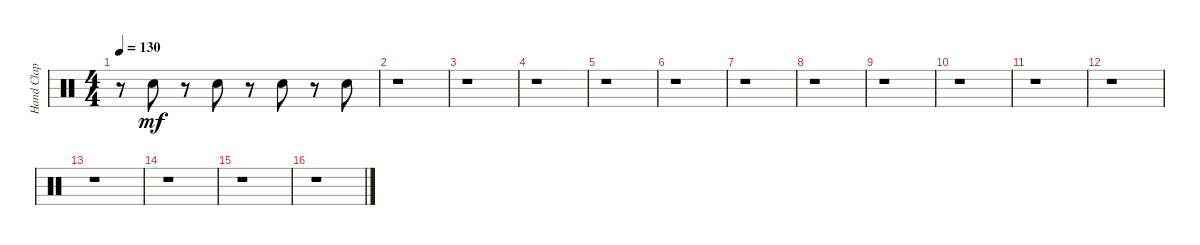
\track ("Hand Clap" "Hand Clap") {instrument percussion}
\staff {score}
\articulation defaults
\ts (4 4)
\tempo 130
\clef neutral
\ks c
r.8{dy mf} "Hand Clap (hit)".8 r.8 "Hand Clap (hit)".8 r.8 "Hand Clap (hit)".8 r.8 "Hand Clap (hit)".8 |
r.1 |
r.1 |
r.1 |
r.1 |
r.1 |
r.1 |
r.1 |
r.1 |
r.1 |
r.1 |
r.1 |
r.1 |
r.1 |
r.1 |
r.1
